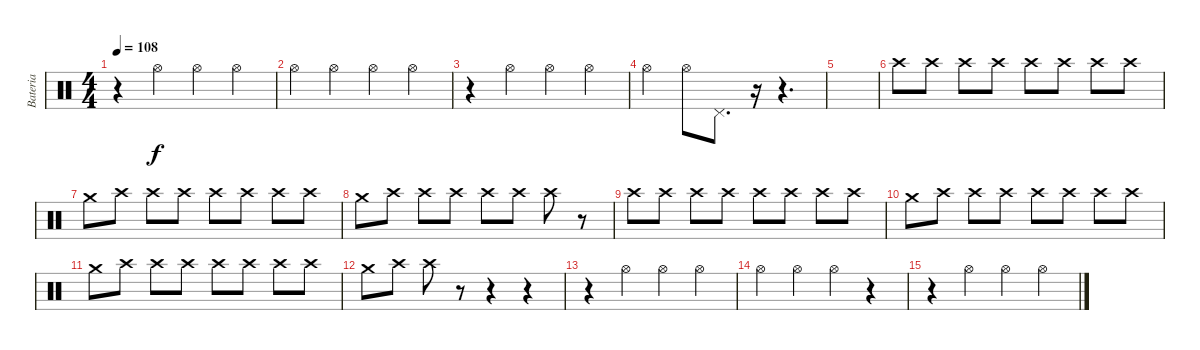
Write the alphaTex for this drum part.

\track ("Bateria" "Bateria") {instrument percussion}
\staff {score}
\articulation defaults
\ts (4 4)
\tempo 108
\clef neutral
\ks c
r.4{dy f} "Hi-Hat (open)".4 "Hi-Hat (open)".4 "Hi-Hat (open)".4 |
"Hi-Hat (open)".4 "Hi-Hat (open)".4 "Hi-Hat (open)".4 "Hi-Hat (open)".4 |
r.4 "Hi-Hat (open)".4 "Hi-Hat (open)".4 "Hi-Hat (open)".4 |
"Hi-Hat (open)".4 "Hi-Hat (open)".8 "Pedal Hi-Hat (hit)".8{d} r.16 r.4{d} |
|
"Crash high (hit)".8 "Crash high (hit)".8 "Crash high (hit)".8 "Crash high (hit)".8 "Crash high (hit)".8 "Crash high (hit)".8 "Crash high (hit)".8 "Crash high (hit)".8 |
"Crash medium (hit)".8 "Crash high (hit)".8 "Crash high (hit)".8 "Crash high (hit)".8 "Crash high (hit)".8 "Crash high (hit)".8 "Crash high (hit)".8 "Crash high (hit)".8 |
"Crash medium (hit)".8 "Crash high (hit)".8 "Crash high (hit)".8 "Crash high (hit)".8 "Crash high (hit)".8 "Crash high (hit)".8 "Crash high (hit)".8 r.8 |
"Crash high (hit)".8 "Crash high (hit)".8 "Crash high (hit)".8 "Crash high (hit)".8 "Crash high (hit)".8 "Crash high (hit)".8 "Crash high (hit)".8 "Crash high (hit)".8 |
"Crash medium (hit)".8 "Crash high (hit)".8 "Crash high (hit)".8 "Crash high (hit)".8 "Crash high (hit)".8 "Crash high (hit)".8 "Crash high (hit)".8 "Crash high (hit)".8 |
"Crash medium (hit)".8 "Crash high (hit)".8 "Crash high (hit)".8 "Crash high (hit)".8 "Crash high (hit)".8 "Crash high (hit)".8 "Crash high (hit)".8 "Crash high (hit)".8 |
"Crash medium (hit)".8 "Crash high (hit)".8 "Crash high (hit)".8 r.8 r.4 r.4 |
r.4 "Hi-Hat (open)".4 "Hi-Hat (open)".4 "Hi-Hat (open)".4 |
"Hi-Hat (open)".4 "Hi-Hat (open)".4 "Hi-Hat (open)".4 r.4 |
r.4 "Hi-Hat (open)".4 "Hi-Hat (open)".4 "Hi-Hat (open)".4
